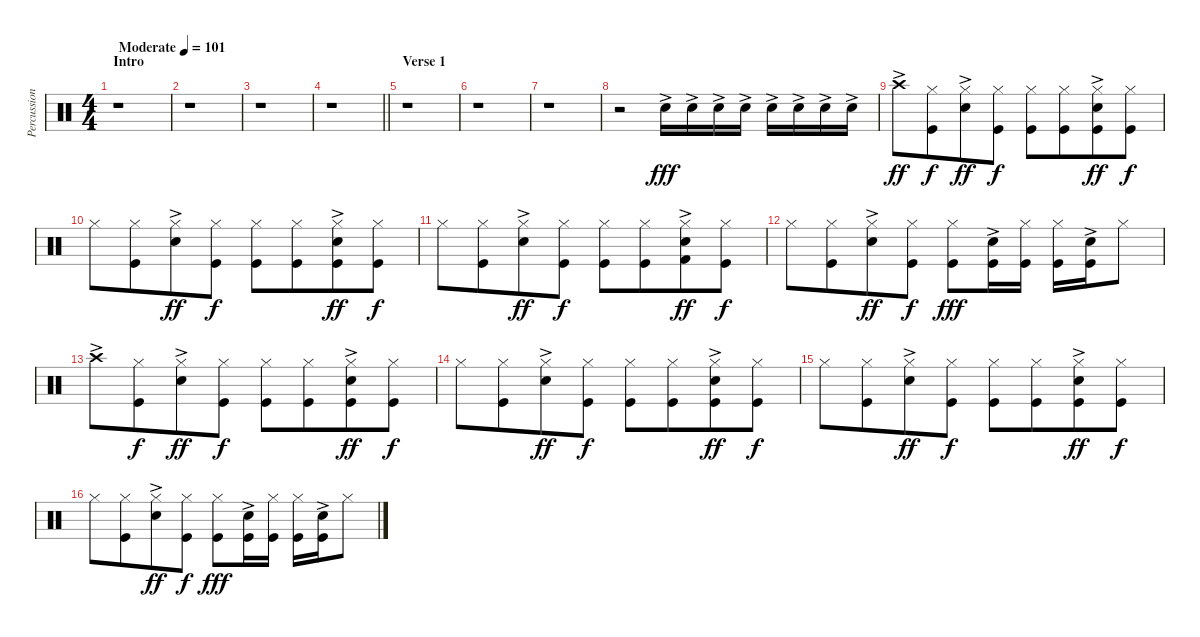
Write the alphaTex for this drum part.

\track ("Percussion" "Percussion") {instrument percussion}
\staff {score}
\articulation defaults
\ts (4 4)
\section ("" "Intro")
\tempo (101 "Moderate")
\clef neutral
\ks c
r.1{dy fff} |
r.1 |
r.1 |
\barLineRight lightlight
r.1 |
\section ("" "Verse 1")
r.1 |
r.1 |
r.1 |
r.2 "Snare (hit) 2"{ac}.16 "Snare (hit) 2"{ac}.16 "Snare (hit) 2"{ac}.16 "Snare (hit) 2"{ac}.16 "Snare (hit) 2"{ac}.16 "Snare (hit) 2"{ac}.16 "Snare (hit) 2"{ac}.16 "Snare (hit) 2"{ac}.16 |
"Crash high (hit)"{ac}.8{dy ff} ("Hi-Hat (closed)" "Kick (hit)").8{dy f beam merge} ("Hi-Hat (closed)" "Snare (hit) 2"{ac}).8{dy ff} ("Hi-Hat (closed)" "Kick (hit)").8{dy f beam split} ("Hi-Hat (closed)" "Kick (hit)").8 ("Hi-Hat (closed)" "Kick (hit)").8{beam merge} ("Hi-Hat (closed)" "Snare (hit) 2"{ac} "Kick (hit)").8{dy ff} ("Hi-Hat (closed)" "Kick (hit)").8{dy f} |
"Hi-Hat (closed)".8 ("Hi-Hat (closed)" "Kick (hit)").8{beam merge} ("Hi-Hat (closed)" "Snare (hit) 2"{ac}).8{dy ff} ("Hi-Hat (closed)" "Kick (hit)").8{dy f} ("Hi-Hat (closed)" "Kick (hit)").8 ("Hi-Hat (closed)" "Kick (hit)").8{beam merge} ("Hi-Hat (closed)" "Snare (hit) 2"{ac} "Kick (hit)").8{dy ff} ("Hi-Hat (closed)" "Kick (hit)").8{dy f} |
"Hi-Hat (closed)".8 ("Hi-Hat (closed)" "Kick (hit)").8{beam merge} ("Hi-Hat (closed)" "Snare (hit) 2"{ac}).8{dy ff} ("Hi-Hat (closed)" "Kick (hit)").8{dy f} ("Hi-Hat (closed)" "Kick (hit)").8 ("Hi-Hat (closed)" "Kick (hit)").8{beam merge} ("Hi-Hat (closed)" "Snare (hit) 2"{ac} "Kick (hit) 2").8{dy ff} ("Hi-Hat (closed)" "Kick (hit)").8{dy f} |
"Hi-Hat (closed)".8 ("Hi-Hat (closed)" "Kick (hit)").8{beam merge} ("Hi-Hat (closed)" "Snare (hit) 2"{ac}).8{dy ff} ("Hi-Hat (closed)" "Kick (hit)").8{dy f} ("Hi-Hat (closed)" "Kick (hit)").8{dy fff} ("Snare (hit) 2"{ac} "Kick (hit)").16 ("Hi-Hat (closed)" "Kick (hit)").16 ("Hi-Hat (closed)" "Kick (hit)").16 ("Snare (hit) 2"{ac} "Kick (hit)").16 "Hi-Hat (closed)".8 |
"Crash high (hit)"{ac}.8 ("Hi-Hat (closed)" "Kick (hit)").8{dy f beam merge} ("Hi-Hat (closed)" "Snare (hit) 2"{ac}).8{dy ff} ("Hi-Hat (closed)" "Kick (hit)").8{dy f beam split} ("Hi-Hat (closed)" "Kick (hit)").8 ("Hi-Hat (closed)" "Kick (hit)").8{beam merge} ("Hi-Hat (closed)" "Snare (hit) 2"{ac} "Kick (hit)").8{dy ff} ("Hi-Hat (closed)" "Kick (hit)").8{dy f} |
"Hi-Hat (closed)".8 ("Hi-Hat (closed)" "Kick (hit)").8{beam merge} ("Hi-Hat (closed)" "Snare (hit) 2"{ac}).8{dy ff} ("Hi-Hat (closed)" "Kick (hit)").8{dy f} ("Hi-Hat (closed)" "Kick (hit)").8 ("Hi-Hat (closed)" "Kick (hit)").8{beam merge} ("Hi-Hat (closed)" "Snare (hit) 2"{ac} "Kick (hit)").8{dy ff} ("Hi-Hat (closed)" "Kick (hit)").8{dy f} |
"Hi-Hat (closed)".8 ("Hi-Hat (closed)" "Kick (hit)").8{beam merge} ("Hi-Hat (closed)" "Snare (hit) 2"{ac}).8{dy ff} ("Hi-Hat (closed)" "Kick (hit)").8{dy f} ("Hi-Hat (closed)" "Kick (hit)").8 ("Hi-Hat (closed)" "Kick (hit)").8{beam merge} ("Hi-Hat (closed)" "Snare (hit) 2"{ac} "Kick (hit)").8{dy ff} ("Hi-Hat (closed)" "Kick (hit)").8{dy f} |
"Hi-Hat (closed)".8 ("Hi-Hat (closed)" "Kick (hit)").8{beam merge} ("Hi-Hat (closed)" "Snare (hit) 2"{ac}).8{dy ff} ("Hi-Hat (closed)" "Kick (hit)").8{dy f} ("Hi-Hat (closed)" "Kick (hit)").8{dy fff} ("Snare (hit) 2"{ac} "Kick (hit)").16 ("Hi-Hat (closed)" "Kick (hit)").16 ("Hi-Hat (closed)" "Kick (hit)").16 ("Snare (hit) 2"{ac} "Kick (hit)").16 "Hi-Hat (closed)".8
